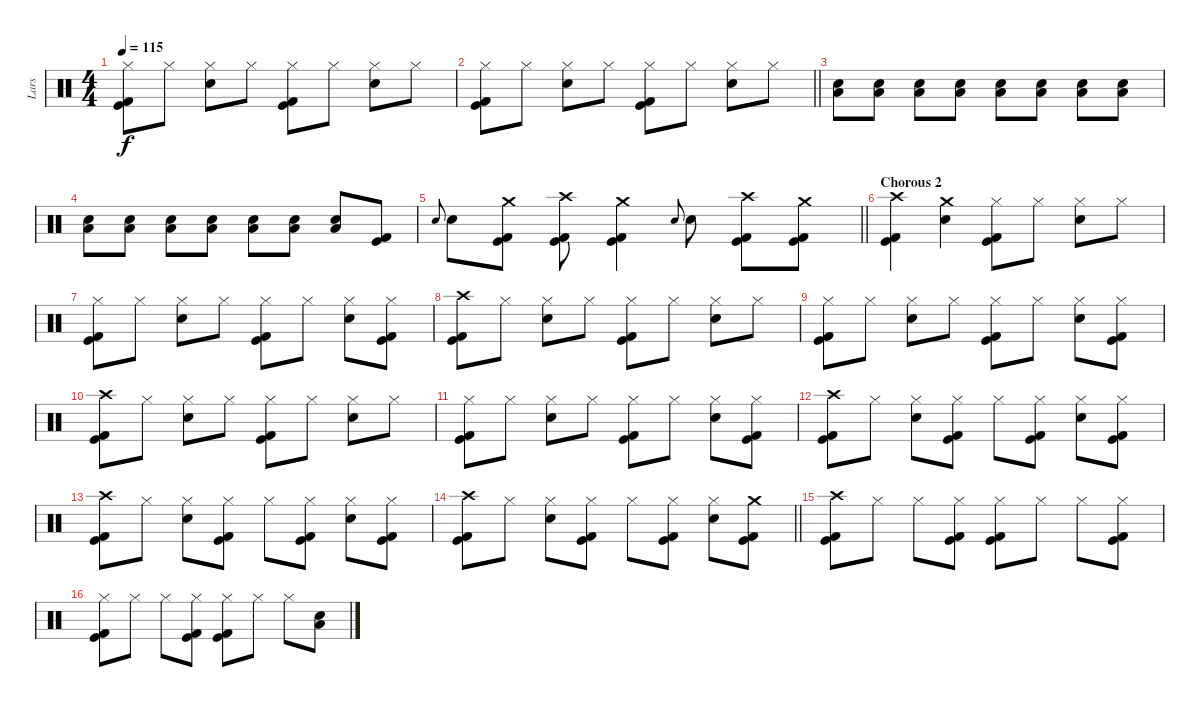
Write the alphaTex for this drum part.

\track ("Lars" "Lars") {instrument percussion}
\staff {score}
\articulation defaults
\ts (4 4)
\tempo 115
\clef neutral
\ks c
("Hi-Hat (closed)" "Kick (hit)" "Kick (hit) 2").8{dy f} "Hi-Hat (closed)".8 ("Hi-Hat (closed)" "Electric Snare (hit)").8 "Hi-Hat (closed)".8 ("Hi-Hat (closed)" "Kick (hit)" "Kick (hit) 2").8 "Hi-Hat (closed)".8 ("Hi-Hat (closed)" "Electric Snare (hit)").8 "Hi-Hat (closed)".8 |
\barLineRight lightlight
("Hi-Hat (closed)" "Kick (hit)" "Kick (hit) 2").8 "Hi-Hat (closed)".8 ("Hi-Hat (closed)" "Electric Snare (hit)").8 "Hi-Hat (closed)".8 ("Hi-Hat (closed)" "Kick (hit)" "Kick (hit) 2").8 "Hi-Hat (closed)".8 ("Hi-Hat (closed)" "Electric Snare (hit)").8 "Hi-Hat (closed)".8 |
("Electric Snare (hit)" "Low Floor Tom (hit)").8 ("Electric Snare (hit)" "Low Floor Tom (hit)").8 ("Electric Snare (hit)" "Low Floor Tom (hit)").8 ("Electric Snare (hit)" "Low Floor Tom (hit)").8 ("Electric Snare (hit)" "Low Floor Tom (hit)").8 ("Electric Snare (hit)" "Low Floor Tom (hit)").8 ("Electric Snare (hit)" "Low Floor Tom (hit)").8 ("Electric Snare (hit)" "Low Floor Tom (hit)").8 |
("Electric Snare (hit)" "Low Floor Tom (hit)").8 ("Electric Snare (hit)" "Low Floor Tom (hit)").8 ("Electric Snare (hit)" "Low Floor Tom (hit)").8 ("Electric Snare (hit)" "Low Floor Tom (hit)").8 ("Electric Snare (hit)" "Low Floor Tom (hit)").8 ("Electric Snare (hit)" "Low Floor Tom (hit)").8 ("Electric Snare (hit)" "Low Floor Tom (hit)").8 ("Kick (hit)" "Kick (hit) 2").8 |
\barLineRight lightlight "Electric Snare (hit)".8{gr onbeat} "Electric Snare (hit)".8
("Crash medium (hit)" "Kick (hit)" "Kick (hit) 2").8 ("Crash high (hit)" "Kick (hit)" "Kick (hit) 2").8 ("Crash medium (hit)" "Kick (hit)" "Kick (hit) 2").4 "Electric Snare (hit)".8{gr onbeat} "Electric Snare (hit)".8 ("Crash high (hit)" "Kick (hit)" "Kick (hit) 2").8 ("Crash medium (hit)" "Kick (hit)" "Kick (hit) 2").8 |
\section ("" "Chorous 2")
("Crash high (hit)" "Kick (hit)" "Kick (hit) 2").4 ("Crash medium (hit)" "Electric Snare (hit)").4 ("Hi-Hat (closed)" "Kick (hit)" "Kick (hit) 2").8 "Hi-Hat (closed)".8 ("Hi-Hat (closed)" "Electric Snare (hit)").8 "Hi-Hat (closed)".8 |
("Hi-Hat (closed)" "Kick (hit)" "Kick (hit) 2").8 "Hi-Hat (closed)".8 ("Hi-Hat (closed)" "Electric Snare (hit)").8 "Hi-Hat (closed)".8 ("Hi-Hat (closed)" "Kick (hit)" "Kick (hit) 2").8 "Hi-Hat (closed)".8 ("Hi-Hat (closed)" "Electric Snare (hit)").8 ("Hi-Hat (closed)" "Kick (hit)" "Kick (hit) 2").8 |
("Crash high (hit)" "Kick (hit)" "Kick (hit) 2").8 "Hi-Hat (closed)".8 ("Hi-Hat (closed)" "Electric Snare (hit)").8 "Hi-Hat (closed)".8 ("Hi-Hat (closed)" "Kick (hit)" "Kick (hit) 2").8 "Hi-Hat (closed)".8 ("Hi-Hat (closed)" "Electric Snare (hit)").8 "Hi-Hat (closed)".8 |
("Hi-Hat (closed)" "Kick (hit)" "Kick (hit) 2").8 "Hi-Hat (closed)".8 ("Hi-Hat (closed)" "Electric Snare (hit)").8 "Hi-Hat (closed)".8 ("Hi-Hat (closed)" "Kick (hit)" "Kick (hit) 2").8 "Hi-Hat (closed)".8 ("Hi-Hat (closed)" "Electric Snare (hit)").8 ("Hi-Hat (closed)" "Kick (hit)" "Kick (hit) 2").8 |
("Crash high (hit)" "Kick (hit)" "Kick (hit) 2").8 "Hi-Hat (closed)".8 ("Hi-Hat (closed)" "Electric Snare (hit)").8 "Hi-Hat (closed)".8 ("Hi-Hat (closed)" "Kick (hit)" "Kick (hit) 2").8 "Hi-Hat (closed)".8 ("Hi-Hat (closed)" "Electric Snare (hit)").8 "Hi-Hat (closed)".8 |
("Hi-Hat (closed)" "Kick (hit)" "Kick (hit) 2").8 "Hi-Hat (closed)".8 ("Hi-Hat (closed)" "Electric Snare (hit)").8 "Hi-Hat (closed)".8 ("Hi-Hat (closed)" "Kick (hit)" "Kick (hit) 2").8 "Hi-Hat (closed)".8 ("Hi-Hat (closed)" "Electric Snare (hit)").8 ("Hi-Hat (closed)" "Kick (hit)" "Kick (hit) 2").8 |
("Crash high (hit)" "Kick (hit)" "Kick (hit) 2").8 "Hi-Hat (closed)".8 ("Hi-Hat (closed)" "Electric Snare (hit)").8 ("Hi-Hat (closed)" "Kick (hit)" "Kick (hit) 2").8 "Hi-Hat (closed)".8 ("Hi-Hat (closed)" "Kick (hit)" "Kick (hit) 2").8 ("Hi-Hat (closed)" "Electric Snare (hit)").8 ("Hi-Hat (closed)" "Kick (hit)" "Kick (hit) 2").8 |
("Crash high (hit)" "Kick (hit)" "Kick (hit) 2").8 "Hi-Hat (closed)".8 ("Hi-Hat (closed)" "Electric Snare (hit)").8 ("Hi-Hat (closed)" "Kick (hit)" "Kick (hit) 2").8 "Hi-Hat (closed)".8 ("Hi-Hat (closed)" "Kick (hit)" "Kick (hit) 2").8 ("Hi-Hat (closed)" "Electric Snare (hit)").8 ("Hi-Hat (closed)" "Kick (hit)" "Kick (hit) 2").8 |
\barLineRight lightlight
("Crash high (hit)" "Kick (hit)" "Kick (hit) 2").8 "Hi-Hat (closed)".8 ("Hi-Hat (closed)" "Electric Snare (hit)").8 ("Hi-Hat (closed)" "Kick (hit)" "Kick (hit) 2").8 "Hi-Hat (closed)".8 ("Hi-Hat (closed)" "Kick (hit)" "Kick (hit) 2").8 ("Hi-Hat (closed)" "Electric Snare (hit)").8 ("Crash medium (hit)" "Kick (hit)" "Kick (hit) 2").8 |
\section ("" "")
("Crash high (hit)" "Kick (hit)" "Kick (hit) 2").8 "Hi-Hat (closed)".8 "Hi-Hat (closed)".8 ("Hi-Hat (closed)" "Kick (hit)" "Kick (hit) 2").8 ("Hi-Hat (closed)" "Kick (hit)" "Kick (hit) 2").8 "Hi-Hat (closed)".8 "Hi-Hat (closed)".8 ("Hi-Hat (closed)" "Kick (hit)" "Kick (hit) 2").8 |
("Hi-Hat (closed)" "Kick (hit)" "Kick (hit) 2").8 "Hi-Hat (closed)".8 "Hi-Hat (closed)".8 ("Hi-Hat (closed)" "Kick (hit)" "Kick (hit) 2").8 ("Hi-Hat (closed)" "Kick (hit)" "Kick (hit) 2").8 "Hi-Hat (closed)".8 "Hi-Hat (closed)".8 ("Electric Snare (hit)" "Low Floor Tom (hit)").8
